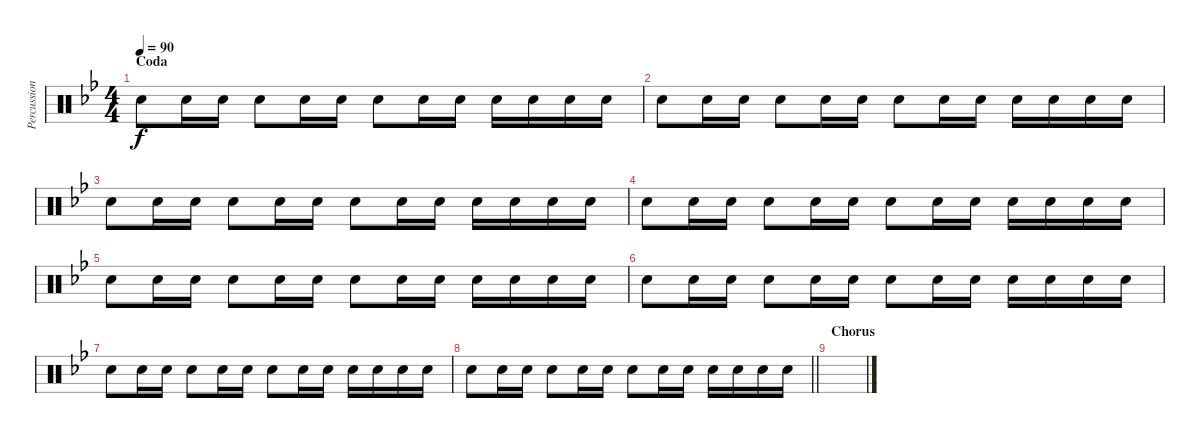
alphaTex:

\track ("Percussion" "Percussion") {instrument percussion}
\staff {score}
\articulation defaults
\ts (4 4)
\section ("" "Coda")
\tempo 90
\clef neutral
\ks bb "Snare (hit) 2".8{dy f} "Snare (hit) 2".16 "Snare (hit) 2".16 "Snare (hit) 2".8 "Snare (hit) 2".16 "Snare (hit) 2".16 "Snare (hit) 2".8 "Snare (hit) 2".16 "Snare (hit) 2".16 "Snare (hit) 2".16 "Snare (hit) 2".16 "Snare (hit) 2".16 "Snare (hit) 2".16
|
"Snare (hit) 2".8 "Snare (hit) 2".16 "Snare (hit) 2".16 "Snare (hit) 2".8 "Snare (hit) 2".16 "Snare (hit) 2".16 "Snare (hit) 2".8 "Snare (hit) 2".16 "Snare (hit) 2".16 "Snare (hit) 2".16 "Snare (hit) 2".16 "Snare (hit) 2".16 "Snare (hit) 2".16 |
"Snare (hit) 2".8 "Snare (hit) 2".16 "Snare (hit) 2".16 "Snare (hit) 2".8 "Snare (hit) 2".16 "Snare (hit) 2".16 "Snare (hit) 2".8 "Snare (hit) 2".16 "Snare (hit) 2".16 "Snare (hit) 2".16 "Snare (hit) 2".16 "Snare (hit) 2".16 "Snare (hit) 2".16 |
"Snare (hit) 2".8 "Snare (hit) 2".16 "Snare (hit) 2".16 "Snare (hit) 2".8 "Snare (hit) 2".16 "Snare (hit) 2".16 "Snare (hit) 2".8 "Snare (hit) 2".16 "Snare (hit) 2".16 "Snare (hit) 2".16 "Snare (hit) 2".16 "Snare (hit) 2".16 "Snare (hit) 2".16 |
"Snare (hit) 2".8 "Snare (hit) 2".16 "Snare (hit) 2".16 "Snare (hit) 2".8 "Snare (hit) 2".16 "Snare (hit) 2".16 "Snare (hit) 2".8 "Snare (hit) 2".16 "Snare (hit) 2".16 "Snare (hit) 2".16 "Snare (hit) 2".16 "Snare (hit) 2".16 "Snare (hit) 2".16 |
"Snare (hit) 2".8 "Snare (hit) 2".16 "Snare (hit) 2".16 "Snare (hit) 2".8 "Snare (hit) 2".16 "Snare (hit) 2".16 "Snare (hit) 2".8 "Snare (hit) 2".16 "Snare (hit) 2".16 "Snare (hit) 2".16 "Snare (hit) 2".16 "Snare (hit) 2".16 "Snare (hit) 2".16 |
"Snare (hit) 2".8 "Snare (hit) 2".16 "Snare (hit) 2".16 "Snare (hit) 2".8 "Snare (hit) 2".16 "Snare (hit) 2".16 "Snare (hit) 2".8 "Snare (hit) 2".16 "Snare (hit) 2".16 "Snare (hit) 2".16 "Snare (hit) 2".16 "Snare (hit) 2".16 "Snare (hit) 2".16 |
\barLineRight lightlight "Snare (hit) 2".8 "Snare (hit) 2".16 "Snare (hit) 2".16 "Snare (hit) 2".8 "Snare (hit) 2".16 "Snare (hit) 2".16 "Snare (hit) 2".8 "Snare (hit) 2".16 "Snare (hit) 2".16 "Snare (hit) 2".16 "Snare (hit) 2".16 "Snare (hit) 2".16 "Snare (hit) 2".16
|
\section ("" "Chorus")
